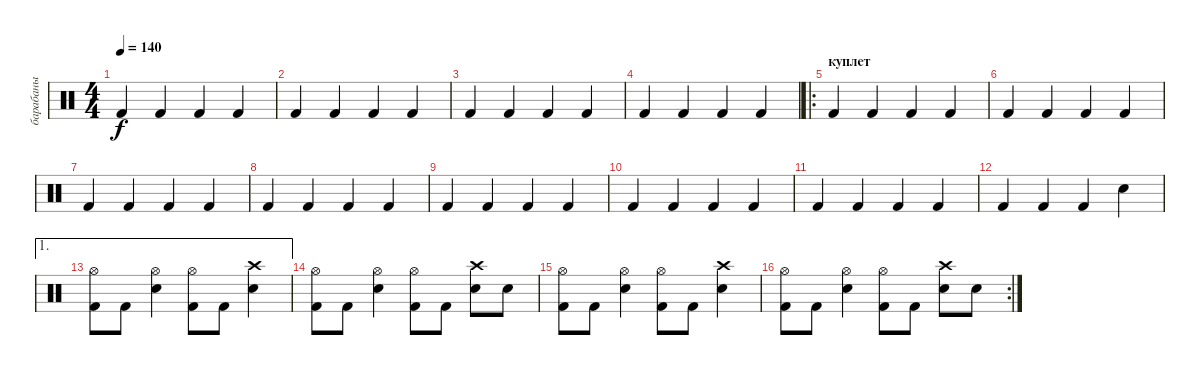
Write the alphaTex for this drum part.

\track ("барабаны" "барабаны") {instrument percussion}
\staff {score}
\articulation defaults
\ts (4 4)
\tempo 140
\clef neutral
\ks c "Kick (hit) 2".4{dy f} "Kick (hit) 2".4 "Kick (hit) 2".4 "Kick (hit) 2".4
|
"Kick (hit) 2".4 "Kick (hit) 2".4 "Kick (hit) 2".4 "Kick (hit) 2".4 |
"Kick (hit) 2".4 "Kick (hit) 2".4 "Kick (hit) 2".4 "Kick (hit) 2".4 |
"Kick (hit) 2".4 "Kick (hit) 2".4 "Kick (hit) 2".4 "Kick (hit) 2".4 |
\ro
\section ("" "куплет")
"Kick (hit) 2".4 "Kick (hit) 2".4 "Kick (hit) 2".4 "Kick (hit) 2".4 |
"Kick (hit) 2".4 "Kick (hit) 2".4 "Kick (hit) 2".4 "Kick (hit) 2".4 |
"Kick (hit) 2".4 "Kick (hit) 2".4 "Kick (hit) 2".4 "Kick (hit) 2".4 |
"Kick (hit) 2".4 "Kick (hit) 2".4 "Kick (hit) 2".4 "Kick (hit) 2".4 |
"Kick (hit) 2".4 "Kick (hit) 2".4 "Kick (hit) 2".4 "Kick (hit) 2".4 |
"Kick (hit) 2".4 "Kick (hit) 2".4 "Kick (hit) 2".4 "Kick (hit) 2".4 |
"Kick (hit) 2".4 "Kick (hit) 2".4 "Kick (hit) 2".4 "Kick (hit) 2".4 |
"Kick (hit) 2".4 "Kick (hit) 2".4 "Kick (hit) 2".4 "Snare (hit) 2".4 |
\ae 1
("Hi-Hat (open)" "Kick (hit) 2").8 "Kick (hit) 2".8 ("Hi-Hat (open)" "Snare (hit) 2").4 ("Hi-Hat (open)" "Kick (hit) 2").8 "Kick (hit) 2".8 ("Crash high (hit)" "Snare (hit) 2").4 |
("Hi-Hat (open)" "Kick (hit) 2").8 "Kick (hit) 2".8 ("Hi-Hat (open)" "Snare (hit) 2").4 ("Hi-Hat (open)" "Kick (hit) 2").8 "Kick (hit) 2".8 ("Crash high (hit)" "Snare (hit) 2").8 "Snare (hit) 2".8 |
("Hi-Hat (open)" "Kick (hit) 2").8 "Kick (hit) 2".8 ("Hi-Hat (open)" "Snare (hit) 2").4 ("Hi-Hat (open)" "Kick (hit) 2").8 "Kick (hit) 2".8 ("Crash high (hit)" "Snare (hit) 2").4 |
\rc 2
("Hi-Hat (open)" "Kick (hit) 2").8 "Kick (hit) 2".8 ("Hi-Hat (open)" "Snare (hit) 2").4 ("Hi-Hat (open)" "Kick (hit) 2").8 "Kick (hit) 2".8 ("Crash high (hit)" "Snare (hit) 2").8 "Snare (hit) 2".8
